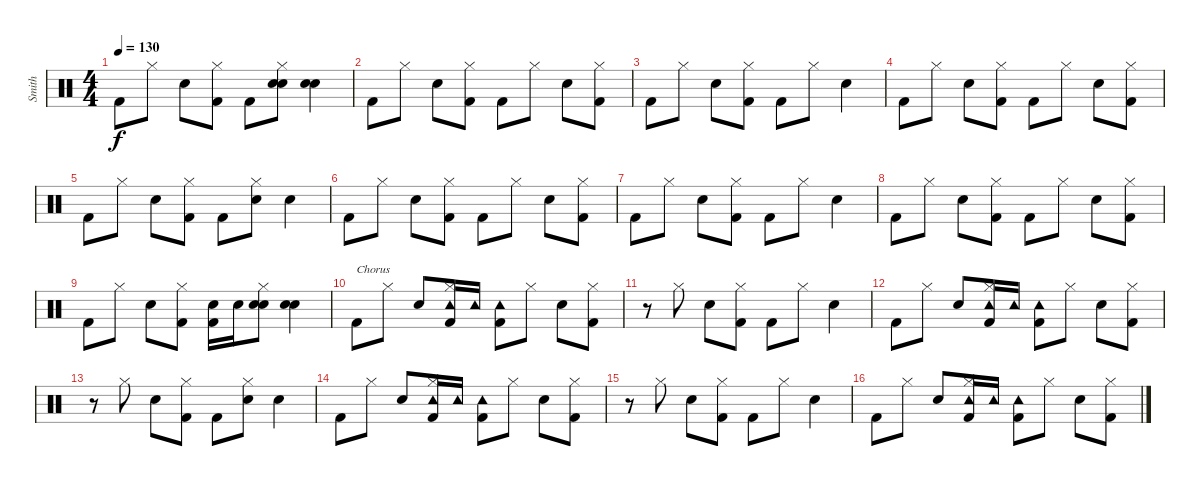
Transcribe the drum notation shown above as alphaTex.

\track ("Smith" "Smith") {instrument percussion}
\staff {score}
\articulation defaults
\ts (4 4)
\tempo 130
\clef neutral
\ks c "Kick (hit) 2".8{dy f} "Hi-Hat (closed)".8 "Snare (hit) 2".8
("Hi-Hat (closed)" "Kick (hit) 2").8 "Kick (hit) 2".8 ("Hand Clap (hit)" "Hi-Hat (closed)" "Snare (hit) 2").8 ("Hand Clap (hit)" "Snare (hit) 2").4 |
"Kick (hit) 2".8 "Hi-Hat (closed)".8 "Snare (hit) 2".8 ("Hi-Hat (closed)" "Kick (hit) 2").8 "Kick (hit) 2".8 "Hi-Hat (closed)".8 "Snare (hit) 2".8 ("Hi-Hat (closed)" "Kick (hit) 2").8 |
"Kick (hit) 2".8 "Hi-Hat (closed)".8 "Snare (hit) 2".8 ("Hi-Hat (closed)" "Kick (hit) 2").8 "Kick (hit) 2".8 "Hi-Hat (closed)".8 "Snare (hit) 2".4 |
"Kick (hit) 2".8 "Hi-Hat (closed)".8 "Snare (hit) 2".8 ("Hi-Hat (closed)" "Kick (hit) 2").8 "Kick (hit) 2".8 "Hi-Hat (closed)".8 "Snare (hit) 2".8 ("Hi-Hat (closed)" "Kick (hit) 2").8 |
"Kick (hit) 2".8 "Hi-Hat (closed)".8 "Snare (hit) 2".8 ("Hi-Hat (closed)" "Kick (hit) 2").8 "Kick (hit) 2".8 ("Hi-Hat (closed)" "Snare (hit) 2").8 "Snare (hit) 2".4 |
"Kick (hit) 2".8 "Hi-Hat (closed)".8 "Snare (hit) 2".8 ("Hi-Hat (closed)" "Kick (hit) 2").8 "Kick (hit) 2".8 "Hi-Hat (closed)".8 "Snare (hit) 2".8 ("Hi-Hat (closed)" "Kick (hit) 2").8 |
"Kick (hit) 2".8 "Hi-Hat (closed)".8 "Snare (hit) 2".8 ("Hi-Hat (closed)" "Kick (hit) 2").8 "Kick (hit) 2".8 "Hi-Hat (closed)".8 "Snare (hit) 2".4 |
"Kick (hit) 2".8 "Hi-Hat (closed)".8 "Snare (hit) 2".8 ("Hi-Hat (closed)" "Kick (hit) 2").8 "Kick (hit) 2".8 "Hi-Hat (closed)".8 "Snare (hit) 2".8 ("Hi-Hat (closed)" "Kick (hit) 2").8 |
"Kick (hit) 2".8 "Hi-Hat (closed)".8 "Snare (hit) 2".8 ("Hi-Hat (closed)" "Kick (hit) 2").8 ("Snare (hit) 2" "Kick (hit) 2").16 "Snare (hit) 2".16 ("Hand Clap (hit)" "Hi-Hat (closed)" "Snare (hit) 2").8 ("Hand Clap (hit)" "Snare (hit) 2").4 |
"Kick (hit) 2".8{txt "Chorus"} "Hi-Hat (closed)".8 "Snare (hit) 2".8 ("Tambourine (hit)" "Hi-Hat (closed)" "Kick (hit) 2").16 "Tambourine (hit)".16 ("Tambourine (hit)" "Kick (hit) 2").8 "Hi-Hat (closed)".8 "Snare (hit) 2".8 ("Hi-Hat (closed)" "Kick (hit) 2").8 |
r.8 "Hi-Hat (closed)".8 "Snare (hit) 2".8 ("Hi-Hat (closed)" "Kick (hit) 2").8 "Kick (hit) 2".8 "Hi-Hat (closed)".8 "Snare (hit) 2".4 |
"Kick (hit) 2".8 "Hi-Hat (closed)".8 "Snare (hit) 2".8 ("Tambourine (hit)" "Hi-Hat (closed)" "Kick (hit) 2").16 "Tambourine (hit)".16 ("Tambourine (hit)" "Kick (hit) 2").8 "Hi-Hat (closed)".8 "Snare (hit) 2".8 ("Hi-Hat (closed)" "Kick (hit) 2").8 |
r.8 "Hi-Hat (closed)".8 "Snare (hit) 2".8 ("Hi-Hat (closed)" "Kick (hit) 2").8 "Kick (hit) 2".8 ("Hi-Hat (closed)" "Snare (hit) 2").8 "Snare (hit) 2".4 |
"Kick (hit) 2".8 "Hi-Hat (closed)".8 "Snare (hit) 2".8 ("Tambourine (hit)" "Hi-Hat (closed)" "Kick (hit) 2").16 "Tambourine (hit)".16 ("Tambourine (hit)" "Kick (hit) 2").8 "Hi-Hat (closed)".8 "Snare (hit) 2".8 ("Hi-Hat (closed)" "Kick (hit) 2").8 |
r.8 "Hi-Hat (closed)".8 "Snare (hit) 2".8 ("Hi-Hat (closed)" "Kick (hit) 2").8 "Kick (hit) 2".8 "Hi-Hat (closed)".8 "Snare (hit) 2".4 |
"Kick (hit) 2".8 "Hi-Hat (closed)".8 "Snare (hit) 2".8 ("Tambourine (hit)" "Hi-Hat (closed)" "Kick (hit) 2").16 "Tambourine (hit)".16 ("Tambourine (hit)" "Kick (hit) 2").8 "Hi-Hat (closed)".8 "Snare (hit) 2".8 ("Hi-Hat (closed)" "Kick (hit) 2").8
